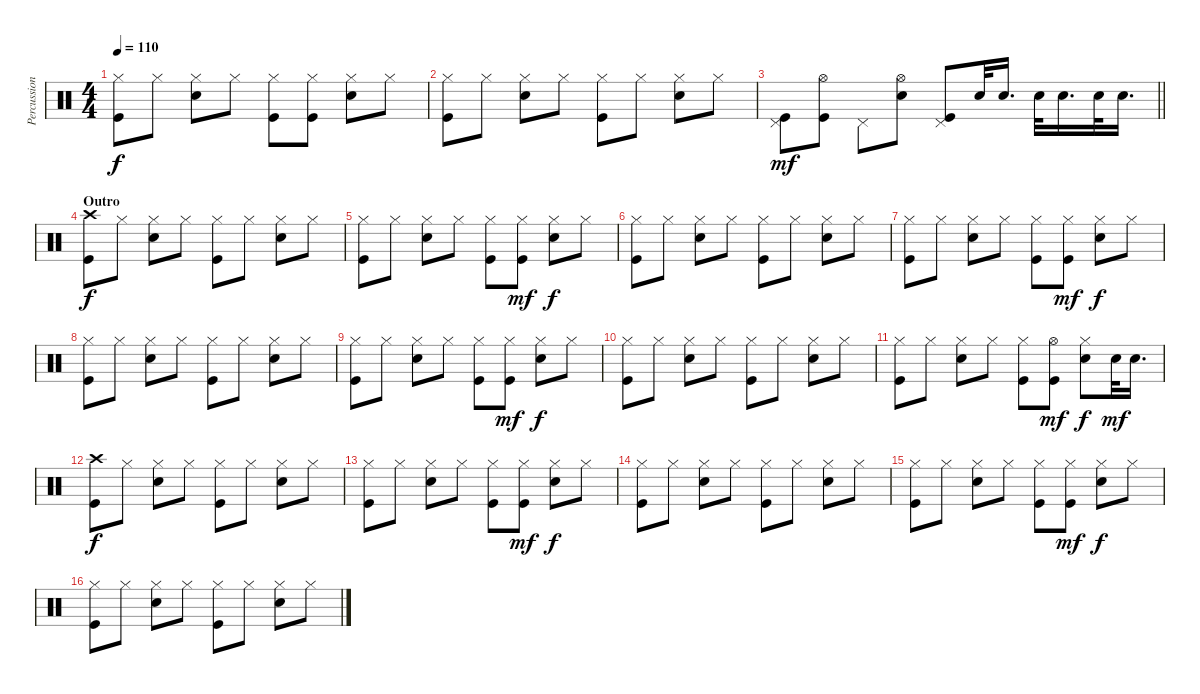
\track ("Percussion" "Percussion") {instrument percussion}
\staff {score}
\articulation defaults
\ts (4 4)
\tempo 110
\clef neutral
\ks c
("Hi-Hat (closed)" "Kick (hit)").8{dy f} "Hi-Hat (closed)".8 ("Hi-Hat (closed)" "Snare (hit) 2").8 "Hi-Hat (closed)".8 ("Hi-Hat (closed)" "Kick (hit)").8 ("Hi-Hat (closed)" "Kick (hit)").8 ("Hi-Hat (closed)" "Snare (hit) 2").8 "Hi-Hat (closed)".8 |
("Hi-Hat (closed)" "Kick (hit)").8 "Hi-Hat (closed)".8 ("Hi-Hat (closed)" "Snare (hit) 2").8 "Hi-Hat (closed)".8 ("Hi-Hat (closed)" "Kick (hit)").8 "Hi-Hat (closed)".8 ("Hi-Hat (closed)" "Snare (hit) 2").8 "Hi-Hat (closed)".8 |
\barLineRight lightlight
("Pedal Hi-Hat (hit)" "Kick (hit)").8{dy mf} ("Hi-Hat (open)" "Kick (hit)").8 "Pedal Hi-Hat (hit)".8 ("Hi-Hat (open)" "Snare (hit) 2").8 ("Pedal Hi-Hat (hit)" "Kick (hit)").8 "Snare (hit) 2".32 "Snare (hit) 2".16{d} "Snare (hit) 2".32 "Snare (hit) 2".16{d} "Snare (hit) 2".32 "Snare (hit) 2".16{d} |
\section ("" "Outro")
("Crash high (hit)" "Kick (hit)").8{dy f} "Hi-Hat (closed)".8 ("Hi-Hat (closed)" "Snare (hit) 2").8 "Hi-Hat (closed)".8 ("Hi-Hat (closed)" "Kick (hit)").8 "Hi-Hat (closed)".8 ("Hi-Hat (closed)" "Snare (hit) 2").8 "Hi-Hat (closed)".8 |
("Hi-Hat (closed)" "Kick (hit)").8 "Hi-Hat (closed)".8 ("Hi-Hat (closed)" "Snare (hit) 2").8 "Hi-Hat (closed)".8 ("Hi-Hat (closed)" "Kick (hit)").8 ("Hi-Hat (closed)" "Kick (hit)").8{dy mf} ("Hi-Hat (closed)" "Snare (hit) 2").8{dy f} "Hi-Hat (closed)".8 |
("Hi-Hat (closed)" "Kick (hit)").8 "Hi-Hat (closed)".8 ("Hi-Hat (closed)" "Snare (hit) 2").8 "Hi-Hat (closed)".8 ("Hi-Hat (closed)" "Kick (hit)").8 "Hi-Hat (closed)".8 ("Hi-Hat (closed)" "Snare (hit) 2").8 "Hi-Hat (closed)".8 |
("Hi-Hat (closed)" "Kick (hit)").8 "Hi-Hat (closed)".8 ("Hi-Hat (closed)" "Snare (hit) 2").8 "Hi-Hat (closed)".8 ("Hi-Hat (closed)" "Kick (hit)").8 ("Hi-Hat (closed)" "Kick (hit)").8{dy mf} ("Hi-Hat (closed)" "Snare (hit) 2").8{dy f} "Hi-Hat (closed)".8 |
("Hi-Hat (closed)" "Kick (hit)").8 "Hi-Hat (closed)".8 ("Hi-Hat (closed)" "Snare (hit) 2").8 "Hi-Hat (closed)".8 ("Hi-Hat (closed)" "Kick (hit)").8 "Hi-Hat (closed)".8 ("Hi-Hat (closed)" "Snare (hit) 2").8 "Hi-Hat (closed)".8 |
("Hi-Hat (closed)" "Kick (hit)").8 "Hi-Hat (closed)".8 ("Hi-Hat (closed)" "Snare (hit) 2").8 "Hi-Hat (closed)".8 ("Hi-Hat (closed)" "Kick (hit)").8 ("Hi-Hat (closed)" "Kick (hit)").8{dy mf} ("Hi-Hat (closed)" "Snare (hit) 2").8{dy f} "Hi-Hat (closed)".8 |
("Hi-Hat (closed)" "Kick (hit)").8 "Hi-Hat (closed)".8 ("Hi-Hat (closed)" "Snare (hit) 2").8 "Hi-Hat (closed)".8 ("Hi-Hat (closed)" "Kick (hit)").8 "Hi-Hat (closed)".8 ("Hi-Hat (closed)" "Snare (hit) 2").8 "Hi-Hat (closed)".8 |
("Hi-Hat (closed)" "Kick (hit)").8 "Hi-Hat (closed)".8 ("Hi-Hat (closed)" "Snare (hit) 2").8 "Hi-Hat (closed)".8 ("Hi-Hat (closed)" "Kick (hit)").8 ("Hi-Hat (open)" "Kick (hit)").8{dy mf} ("Hi-Hat (closed)" "Snare (hit) 2").8{dy f} "Snare (hit) 2".32{dy mf} "Snare (hit) 2".16{d} |
("Crash high (hit)" "Kick (hit)").8{dy f} "Hi-Hat (closed)".8 ("Hi-Hat (closed)" "Snare (hit) 2").8 "Hi-Hat (closed)".8 ("Hi-Hat (closed)" "Kick (hit)").8 "Hi-Hat (closed)".8 ("Hi-Hat (closed)" "Snare (hit) 2").8 "Hi-Hat (closed)".8 |
("Hi-Hat (closed)" "Kick (hit)").8 "Hi-Hat (closed)".8 ("Hi-Hat (closed)" "Snare (hit) 2").8 "Hi-Hat (closed)".8 ("Hi-Hat (closed)" "Kick (hit)").8 ("Hi-Hat (closed)" "Kick (hit)").8{dy mf} ("Hi-Hat (closed)" "Snare (hit) 2").8{dy f} "Hi-Hat (closed)".8 |
("Hi-Hat (closed)" "Kick (hit)").8 "Hi-Hat (closed)".8 ("Hi-Hat (closed)" "Snare (hit) 2").8 "Hi-Hat (closed)".8 ("Hi-Hat (closed)" "Kick (hit)").8 "Hi-Hat (closed)".8 ("Hi-Hat (closed)" "Snare (hit) 2").8 "Hi-Hat (closed)".8 |
("Hi-Hat (closed)" "Kick (hit)").8 "Hi-Hat (closed)".8 ("Hi-Hat (closed)" "Snare (hit) 2").8 "Hi-Hat (closed)".8 ("Hi-Hat (closed)" "Kick (hit)").8 ("Hi-Hat (closed)" "Kick (hit)").8{dy mf} ("Hi-Hat (closed)" "Snare (hit) 2").8{dy f} "Hi-Hat (closed)".8 |
("Hi-Hat (closed)" "Kick (hit)").8 "Hi-Hat (closed)".8 ("Hi-Hat (closed)" "Snare (hit) 2").8 "Hi-Hat (closed)".8 ("Hi-Hat (closed)" "Kick (hit)").8 "Hi-Hat (closed)".8 ("Hi-Hat (closed)" "Snare (hit) 2").8 "Hi-Hat (closed)".8
